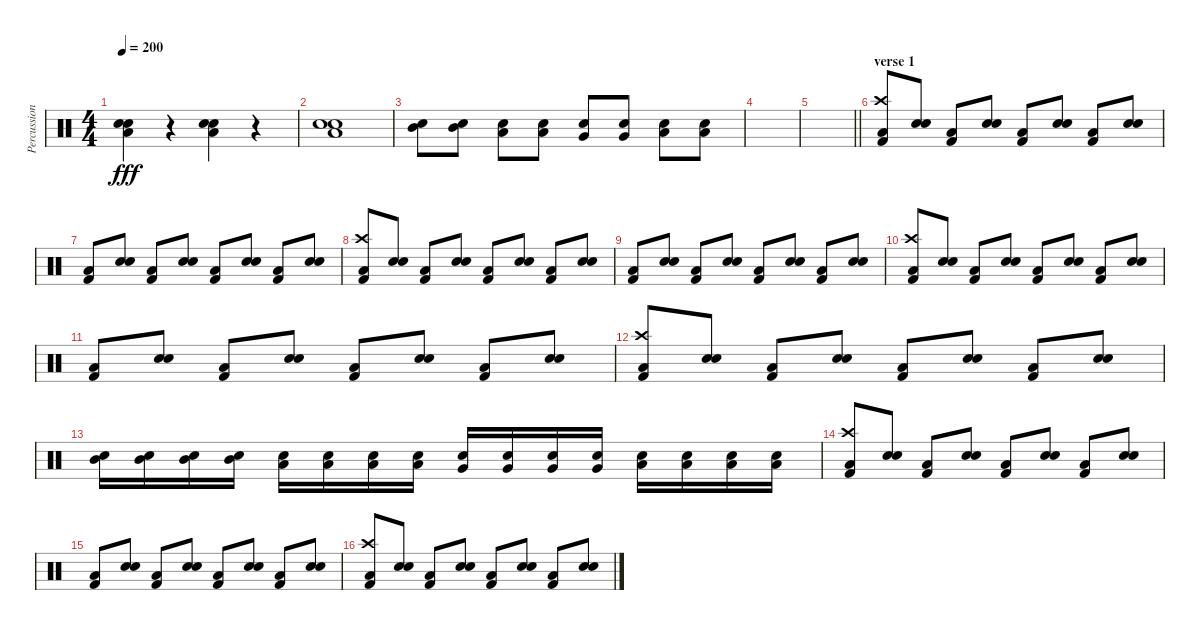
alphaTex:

\track ("Percussion, dave" "Percussion") {instrument percussion}
\staff {score}
\articulation defaults
\ts (4 4)
\tempo 200
\clef neutral
\ks c
("Low Tom (hit)" "Electric Snare (hit)" "Snare (hit) 2").4{dy fff} r.4 ("Low Tom (hit)" "Electric Snare (hit)" "Snare (hit) 2").4 r.4 |
("Low Tom (hit)" "Electric Snare (hit)" "Snare (hit) 2").1 |
("Mid Tom (hit)" "Snare (hit) 2").8 ("Mid Tom (hit)" "Snare (hit) 2").8 ("Low Tom (hit)" "Snare (hit) 2").8 ("Low Tom (hit)" "Snare (hit) 2").8 ("Very Low Tom (hit)" "Snare (hit) 2").8 ("Very Low Tom (hit)" "Snare (hit) 2").8 ("Low Floor Tom (hit)" "Snare (hit) 2").8 ("Low Floor Tom (hit)" "Snare (hit) 2").8 |
|
\barLineRight lightlight
|
\section ("" "verse 1")
("Crash high (hit)" "Low Tom (hit)" "Kick (hit) 2").8 ("Electric Snare (hit)" "Snare (hit) 2").8 ("Low Tom (hit)" "Kick (hit) 2").8 ("Electric Snare (hit)" "Snare (hit) 2").8 ("Low Tom (hit)" "Kick (hit) 2").8 ("Electric Snare (hit)" "Snare (hit) 2").8 ("Low Tom (hit)" "Kick (hit) 2").8 ("Electric Snare (hit)" "Snare (hit) 2").8 |
("Low Tom (hit)" "Kick (hit) 2").8 ("Electric Snare (hit)" "Snare (hit) 2").8 ("Low Tom (hit)" "Kick (hit) 2").8 ("Electric Snare (hit)" "Snare (hit) 2").8 ("Low Tom (hit)" "Kick (hit) 2").8 ("Electric Snare (hit)" "Snare (hit) 2").8 ("Low Tom (hit)" "Kick (hit) 2").8 ("Electric Snare (hit)" "Snare (hit) 2").8 |
("Crash high (hit)" "Low Tom (hit)" "Kick (hit) 2").8 ("Electric Snare (hit)" "Snare (hit) 2").8 ("Low Tom (hit)" "Kick (hit) 2").8 ("Electric Snare (hit)" "Snare (hit) 2").8 ("Low Tom (hit)" "Kick (hit) 2").8 ("Electric Snare (hit)" "Snare (hit) 2").8 ("Low Tom (hit)" "Kick (hit) 2").8 ("Electric Snare (hit)" "Snare (hit) 2").8 |
("Low Tom (hit)" "Kick (hit) 2").8 ("Electric Snare (hit)" "Snare (hit) 2").8 ("Low Tom (hit)" "Kick (hit) 2").8 ("Electric Snare (hit)" "Snare (hit) 2").8 ("Low Tom (hit)" "Kick (hit) 2").8 ("Electric Snare (hit)" "Snare (hit) 2").8 ("Low Tom (hit)" "Kick (hit) 2").8 ("Electric Snare (hit)" "Snare (hit) 2").8 |
("Crash high (hit)" "Low Tom (hit)" "Kick (hit) 2").8 ("Electric Snare (hit)" "Snare (hit) 2").8 ("Low Tom (hit)" "Kick (hit) 2").8 ("Electric Snare (hit)" "Snare (hit) 2").8 ("Low Tom (hit)" "Kick (hit) 2").8 ("Electric Snare (hit)" "Snare (hit) 2").8 ("Low Tom (hit)" "Kick (hit) 2").8 ("Electric Snare (hit)" "Snare (hit) 2").8 |
("Low Tom (hit)" "Kick (hit) 2").8 ("Electric Snare (hit)" "Snare (hit) 2").8 ("Low Tom (hit)" "Kick (hit) 2").8 ("Electric Snare (hit)" "Snare (hit) 2").8 ("Low Tom (hit)" "Kick (hit) 2").8 ("Electric Snare (hit)" "Snare (hit) 2").8 ("Low Tom (hit)" "Kick (hit) 2").8 ("Electric Snare (hit)" "Snare (hit) 2").8 |
("Crash high (hit)" "Low Tom (hit)" "Kick (hit) 2").8 ("Electric Snare (hit)" "Snare (hit) 2").8 ("Low Tom (hit)" "Kick (hit) 2").8 ("Electric Snare (hit)" "Snare (hit) 2").8 ("Low Tom (hit)" "Kick (hit) 2").8 ("Electric Snare (hit)" "Snare (hit) 2").8 ("Low Tom (hit)" "Kick (hit) 2").8 ("Electric Snare (hit)" "Snare (hit) 2").8 |
("Mid Tom (hit)" "Snare (hit) 2").16 ("Mid Tom (hit)" "Snare (hit) 2").16 ("Mid Tom (hit)" "Snare (hit) 2").16 ("Mid Tom (hit)" "Snare (hit) 2").16 ("Low Tom (hit)" "Snare (hit) 2").16 ("Low Tom (hit)" "Snare (hit) 2").16 ("Low Tom (hit)" "Snare (hit) 2").16 ("Low Tom (hit)" "Snare (hit) 2").16 ("Very Low Tom (hit)" "Snare (hit) 2").16 ("Very Low Tom (hit)" "Snare (hit) 2").16 ("Very Low Tom (hit)" "Snare (hit) 2").16 ("Very Low Tom (hit)" "Snare (hit) 2").16 ("Low Floor Tom (hit)" "Snare (hit) 2").16 ("Low Floor Tom (hit)" "Snare (hit) 2").16 ("Low Floor Tom (hit)" "Snare (hit) 2").16 ("Low Floor Tom (hit)" "Snare (hit) 2").16 |
("Crash high (hit)" "Low Tom (hit)" "Kick (hit) 2").8 ("Electric Snare (hit)" "Snare (hit) 2").8 ("Low Tom (hit)" "Kick (hit) 2").8 ("Electric Snare (hit)" "Snare (hit) 2").8 ("Low Tom (hit)" "Kick (hit) 2").8 ("Electric Snare (hit)" "Snare (hit) 2").8 ("Low Tom (hit)" "Kick (hit) 2").8 ("Electric Snare (hit)" "Snare (hit) 2").8 |
("Low Tom (hit)" "Kick (hit) 2").8 ("Electric Snare (hit)" "Snare (hit) 2").8 ("Low Tom (hit)" "Kick (hit) 2").8 ("Electric Snare (hit)" "Snare (hit) 2").8 ("Low Tom (hit)" "Kick (hit) 2").8 ("Electric Snare (hit)" "Snare (hit) 2").8 ("Low Tom (hit)" "Kick (hit) 2").8 ("Electric Snare (hit)" "Snare (hit) 2").8 |
("Crash high (hit)" "Low Tom (hit)" "Kick (hit) 2").8 ("Electric Snare (hit)" "Snare (hit) 2").8 ("Low Tom (hit)" "Kick (hit) 2").8 ("Electric Snare (hit)" "Snare (hit) 2").8 ("Low Tom (hit)" "Kick (hit) 2").8 ("Electric Snare (hit)" "Snare (hit) 2").8 ("Low Tom (hit)" "Kick (hit) 2").8 ("Electric Snare (hit)" "Snare (hit) 2").8
